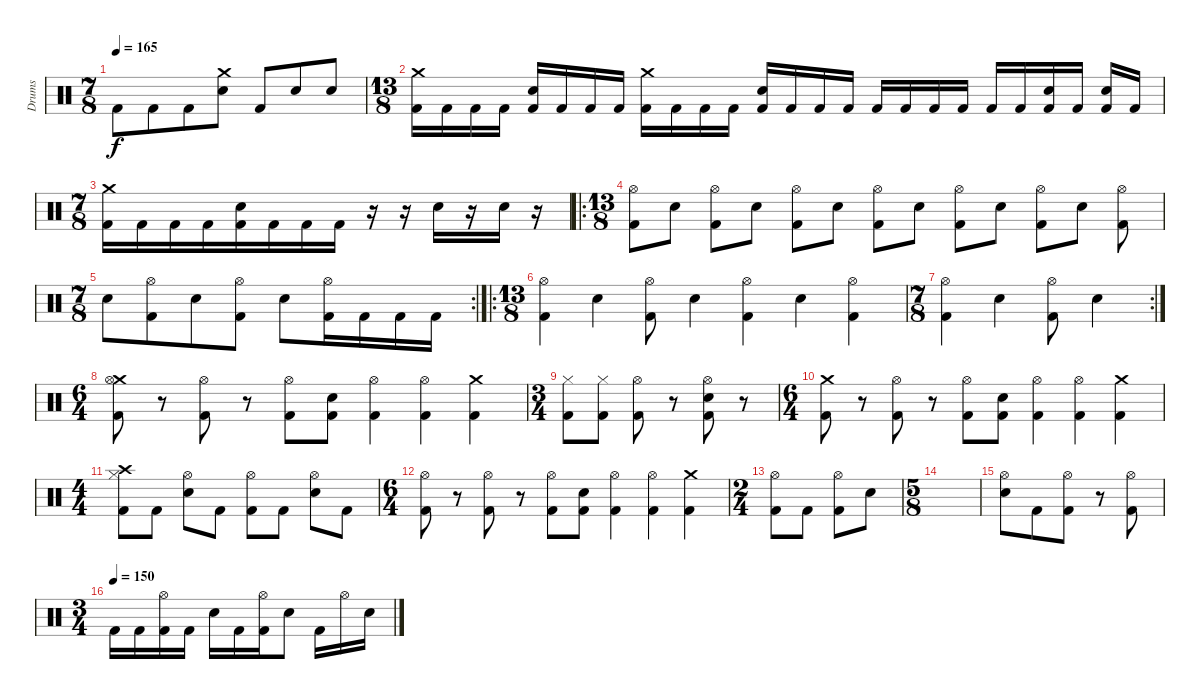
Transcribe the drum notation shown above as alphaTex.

\track ("Drums" "Drums") {instrument percussion}
\staff {score}
\articulation defaults
\ts (7 8)
\tempo 165
\clef neutral
\ks c "Kick (hit) 2".8{dy f} "Kick (hit) 2".8 "Kick (hit) 2".8
("Crash medium (hit)" "Electric Snare (hit)").8 "Kick (hit) 2".8 "Electric Snare (hit)".8 "Electric Snare (hit)".8 |
\ts (13 8)
("Crash medium (hit)" "Kick (hit) 2").16 "Kick (hit) 2".16 "Kick (hit) 2".16 "Kick (hit) 2".16 ("Electric Snare (hit)" "Kick (hit) 2").16 "Kick (hit) 2".16 "Kick (hit) 2".16 "Kick (hit) 2".16 ("Crash medium (hit)" "Kick (hit) 2").16 "Kick (hit) 2".16 "Kick (hit) 2".16 "Kick (hit) 2".16 ("Electric Snare (hit)" "Kick (hit) 2").16 "Kick (hit) 2".16 "Kick (hit) 2".16 "Kick (hit) 2".16 "Kick (hit) 2".16 "Kick (hit) 2".16 "Kick (hit) 2".16 "Kick (hit) 2".16 "Kick (hit) 2".16 "Kick (hit) 2".16 ("Electric Snare (hit)" "Kick (hit) 2").16 "Kick (hit) 2".16 ("Electric Snare (hit)" "Kick (hit) 2").16 "Kick (hit) 2".16 |
\ts (7 8)
("Crash medium (hit)" "Kick (hit) 2").16 "Kick (hit) 2".16 "Kick (hit) 2".16 "Kick (hit) 2".16 ("Electric Snare (hit)" "Kick (hit) 2").16 "Kick (hit) 2".16 "Kick (hit) 2".16 "Kick (hit) 2".16 r.16 r.16 "Electric Snare (hit)".16 r.16 "Electric Snare (hit)".16 r.16 |
\ro
\ts (13 8)
("Hi-Hat (open)" "Kick (hit) 2").8 "Electric Snare (hit)".8 ("Hi-Hat (open)" "Kick (hit) 2").8 "Electric Snare (hit)".8 ("Hi-Hat (open)" "Kick (hit) 2").8 "Electric Snare (hit)".8 ("Hi-Hat (open)" "Kick (hit) 2").8 "Electric Snare (hit)".8 ("Hi-Hat (open)" "Kick (hit) 2").8 "Electric Snare (hit)".8 ("Hi-Hat (open)" "Kick (hit) 2").8 "Electric Snare (hit)".8 ("Hi-Hat (open)" "Kick (hit) 2").8 |
\rc 2
\ts (7 8)
"Electric Snare (hit)".8 ("Hi-Hat (open)" "Kick (hit) 2").8 "Electric Snare (hit)".8 ("Hi-Hat (open)" "Kick (hit) 2").8 "Electric Snare (hit)".8 ("Hi-Hat (open)" "Kick (hit) 2").16 "Kick (hit) 2".16 "Kick (hit) 2".16 "Kick (hit) 2".16 |
\ro
\ts (13 8)
("Hi-Hat (open)" "Kick (hit) 2").4 "Electric Snare (hit)".4 ("Hi-Hat (open)" "Kick (hit) 2").8 "Electric Snare (hit)".4 ("Hi-Hat (open)" "Kick (hit) 2").4 "Electric Snare (hit)".4 ("Hi-Hat (open)" "Kick (hit) 2").4 |
\rc 2
\ts (7 8)
("Hi-Hat (open)" "Kick (hit) 2").4 "Electric Snare (hit)".4 ("Hi-Hat (open)" "Kick (hit) 2").8 "Electric Snare (hit)".4 |
\ts (6 4)
("Crash medium (hit)" "Hi-Hat (open)" "Kick (hit) 2").8 r.8 ("Hi-Hat (open)" "Kick (hit) 2").8 r.8 ("Hi-Hat (open)" "Kick (hit) 2").8 ("Electric Snare (hit)" "Kick (hit) 2").8 ("Hi-Hat (open)" "Kick (hit) 2").4 ("Hi-Hat (open)" "Kick (hit) 2").4 ("Crash medium (hit)" "Kick (hit) 2").4 |
\ts (3 4)
("Hi-Hat (closed)" "Kick (hit) 2").8 ("Hi-Hat (closed)" "Kick (hit) 2").8 ("Hi-Hat (open)" "Kick (hit) 2").8 r.8 ("Hi-Hat (open)" "Electric Snare (hit)" "Kick (hit) 2").8 r.8 |
\ts (6 4)
("Crash medium (hit)" "Kick (hit) 2").8 r.8 ("Hi-Hat (open)" "Kick (hit) 2").8 r.8 ("Hi-Hat (open)" "Kick (hit) 2").8 ("Electric Snare (hit)" "Kick (hit) 2").8 ("Hi-Hat (open)" "Kick (hit) 2").4 ("Hi-Hat (open)" "Kick (hit) 2").4 ("Crash medium (hit)" "Kick (hit) 2").4 |
\ts (4 4)
("Hi-Hat (closed)" "Crash high (hit)" "Kick (hit) 2").8 "Kick (hit) 2".8 ("Hi-Hat (open)" "Electric Snare (hit)").8 "Kick (hit) 2".8 ("Hi-Hat (open)" "Kick (hit) 2").8 "Kick (hit) 2".8 ("Hi-Hat (open)" "Electric Snare (hit)").8 "Kick (hit) 2".8 |
\ts (6 4)
("Hi-Hat (open)" "Kick (hit) 2").8 r.8 ("Hi-Hat (open)" "Kick (hit) 2").8 r.8 ("Hi-Hat (open)" "Kick (hit) 2").8 ("Electric Snare (hit)" "Kick (hit) 2").8 ("Hi-Hat (open)" "Kick (hit) 2").4 ("Hi-Hat (open)" "Kick (hit) 2").4 ("Crash medium (hit)" "Kick (hit) 2").4 |
\ts (2 4)
("Hi-Hat (open)" "Kick (hit) 2").8 "Kick (hit) 2".8 ("Hi-Hat (open)" "Kick (hit) 2").8 "Electric Snare (hit)".8 |
\ts (5 8)
|
("Hi-Hat (open)" "Electric Snare (hit)").8 "Kick (hit) 2".8 ("Hi-Hat (open)" "Kick (hit) 2").8 r.8 ("Hi-Hat (open)" "Kick (hit) 2").8 |
\ts (3 4)
\tempo (150)
"Kick (hit) 2".16 "Kick (hit) 2".16 ("Hi-Hat (open)" "Kick (hit) 2").16 "Kick (hit) 2".16 "Electric Snare (hit)".16 "Kick (hit) 2".16 ("Hi-Hat (open)" "Kick (hit) 2").16 "Electric Snare (hit)".8 "Kick (hit) 2".16 "Hi-Hat (open)".16 "Electric Snare (hit)".16
